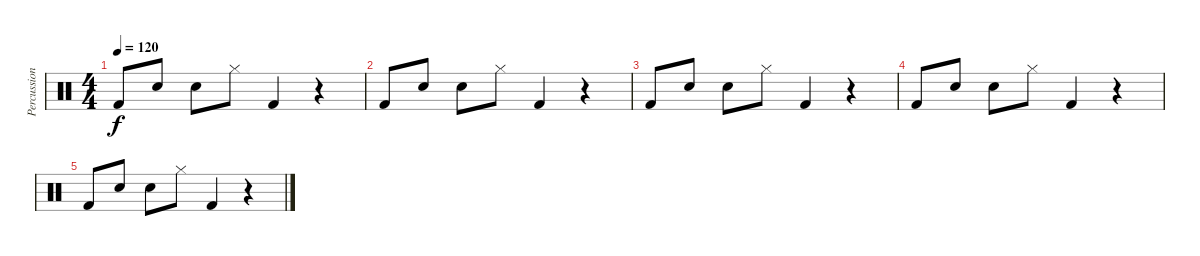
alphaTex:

\track ("Percussion" "Percussion") {instrument percussion}
\staff {score}
\articulation defaults
\ts (4 4)
\tempo 120
\clef neutral
\ks c "Kick (hit) 2".8{dy f} "Snare (hit) 2".8 "Electric Snare (hit)".8 "Hi-Hat (closed)".8 "Kick (hit) 2".4
r.4 |
"Kick (hit) 2".8 "Snare (hit) 2".8 "Electric Snare (hit)".8 "Hi-Hat (closed)".8 "Kick (hit) 2".4 r.4 |
"Kick (hit) 2".8 "Snare (hit) 2".8 "Electric Snare (hit)".8 "Hi-Hat (closed)".8 "Kick (hit) 2".4 r.4 |
"Kick (hit) 2".8 "Snare (hit) 2".8 "Electric Snare (hit)".8 "Hi-Hat (closed)".8 "Kick (hit) 2".4 r.4 |
"Kick (hit) 2".8 "Snare (hit) 2".8 "Electric Snare (hit)".8 "Hi-Hat (closed)".8 "Kick (hit) 2".4 r.4
